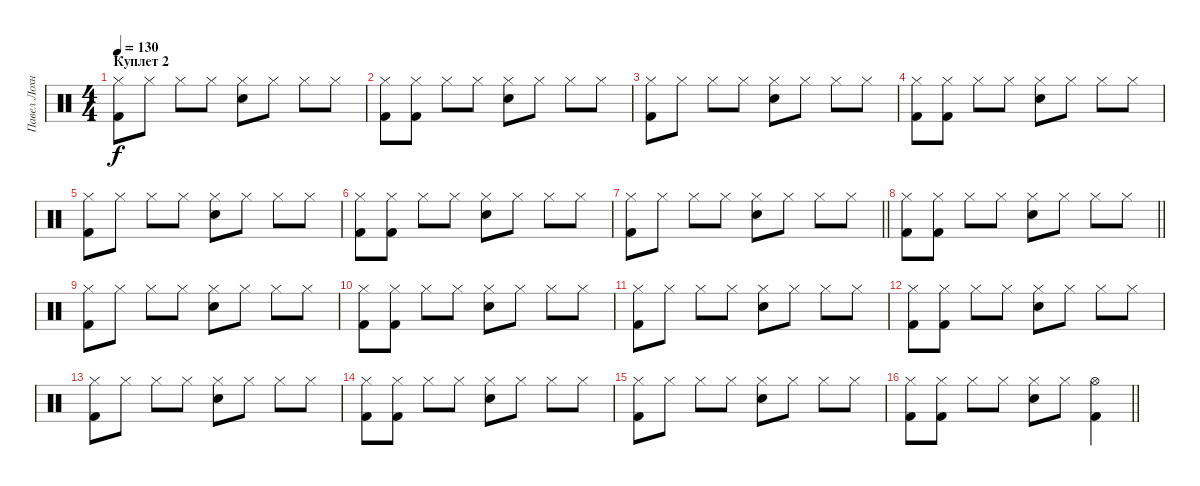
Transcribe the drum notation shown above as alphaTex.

\track ("Павел Лохнин" "Павел Лохн") {instrument percussion}
\staff {score}
\articulation defaults
\ts (4 4)
\section ("" "Куплет 2")
\tempo 130
\clef neutral
\ks c
("Hi-Hat (closed)" "Kick (hit) 2").8{dy f volume 13} "Hi-Hat (closed)".8 "Hi-Hat (closed)".8 "Hi-Hat (closed)".8 ("Hi-Hat (closed)" "Electric Snare (hit)").8 "Hi-Hat (closed)".8 "Hi-Hat (closed)".8 "Hi-Hat (closed)".8 |
("Hi-Hat (closed)" "Kick (hit) 2").8 ("Hi-Hat (closed)" "Kick (hit) 2").8 "Hi-Hat (closed)".8 "Hi-Hat (closed)".8 ("Hi-Hat (closed)" "Electric Snare (hit)").8 "Hi-Hat (closed)".8 "Hi-Hat (closed)".8 "Hi-Hat (closed)".8 |
("Hi-Hat (closed)" "Kick (hit) 2").8 "Hi-Hat (closed)".8 "Hi-Hat (closed)".8 "Hi-Hat (closed)".8 ("Hi-Hat (closed)" "Electric Snare (hit)").8 "Hi-Hat (closed)".8 "Hi-Hat (closed)".8 "Hi-Hat (closed)".8 |
("Hi-Hat (closed)" "Kick (hit) 2").8 ("Hi-Hat (closed)" "Kick (hit) 2").8 "Hi-Hat (closed)".8 "Hi-Hat (closed)".8 ("Hi-Hat (closed)" "Electric Snare (hit)").8 "Hi-Hat (closed)".8 "Hi-Hat (closed)".8 "Hi-Hat (closed)".8 |
("Hi-Hat (closed)" "Kick (hit) 2").8 "Hi-Hat (closed)".8 "Hi-Hat (closed)".8 "Hi-Hat (closed)".8 ("Hi-Hat (closed)" "Electric Snare (hit)").8 "Hi-Hat (closed)".8 "Hi-Hat (closed)".8 "Hi-Hat (closed)".8 |
("Hi-Hat (closed)" "Kick (hit) 2").8 ("Hi-Hat (closed)" "Kick (hit) 2").8 "Hi-Hat (closed)".8 "Hi-Hat (closed)".8 ("Hi-Hat (closed)" "Electric Snare (hit)").8 "Hi-Hat (closed)".8 "Hi-Hat (closed)".8 "Hi-Hat (closed)".8 |
\barLineRight lightlight
("Hi-Hat (closed)" "Kick (hit) 2").8 "Hi-Hat (closed)".8 "Hi-Hat (closed)".8 "Hi-Hat (closed)".8 ("Hi-Hat (closed)" "Electric Snare (hit)").8 "Hi-Hat (closed)".8 "Hi-Hat (closed)".8 "Hi-Hat (closed)".8 |
\barLineRight lightlight
("Hi-Hat (closed)" "Kick (hit) 2").8 ("Hi-Hat (closed)" "Kick (hit) 2").8 "Hi-Hat (closed)".8 "Hi-Hat (closed)".8 ("Hi-Hat (closed)" "Electric Snare (hit)").8 "Hi-Hat (closed)".8 "Hi-Hat (closed)".8 "Hi-Hat (closed)".8 |
("Hi-Hat (closed)" "Kick (hit) 2").8 "Hi-Hat (closed)".8 "Hi-Hat (closed)".8 "Hi-Hat (closed)".8 ("Hi-Hat (closed)" "Electric Snare (hit)").8 "Hi-Hat (closed)".8 "Hi-Hat (closed)".8 "Hi-Hat (closed)".8 |
("Hi-Hat (closed)" "Kick (hit) 2").8 ("Hi-Hat (closed)" "Kick (hit) 2").8 "Hi-Hat (closed)".8 "Hi-Hat (closed)".8 ("Hi-Hat (closed)" "Electric Snare (hit)").8 "Hi-Hat (closed)".8 "Hi-Hat (closed)".8 "Hi-Hat (closed)".8 |
("Hi-Hat (closed)" "Kick (hit) 2").8 "Hi-Hat (closed)".8 "Hi-Hat (closed)".8 "Hi-Hat (closed)".8 ("Hi-Hat (closed)" "Electric Snare (hit)").8 "Hi-Hat (closed)".8 "Hi-Hat (closed)".8 "Hi-Hat (closed)".8 |
("Hi-Hat (closed)" "Kick (hit) 2").8 ("Hi-Hat (closed)" "Kick (hit) 2").8 "Hi-Hat (closed)".8 "Hi-Hat (closed)".8 ("Hi-Hat (closed)" "Electric Snare (hit)").8 "Hi-Hat (closed)".8 "Hi-Hat (closed)".8 "Hi-Hat (closed)".8 |
("Hi-Hat (closed)" "Kick (hit) 2").8 "Hi-Hat (closed)".8 "Hi-Hat (closed)".8 "Hi-Hat (closed)".8 ("Hi-Hat (closed)" "Electric Snare (hit)").8 "Hi-Hat (closed)".8 "Hi-Hat (closed)".8 "Hi-Hat (closed)".8 |
("Hi-Hat (closed)" "Kick (hit) 2").8 ("Hi-Hat (closed)" "Kick (hit) 2").8 "Hi-Hat (closed)".8 "Hi-Hat (closed)".8 ("Hi-Hat (closed)" "Electric Snare (hit)").8 "Hi-Hat (closed)".8 "Hi-Hat (closed)".8 "Hi-Hat (closed)".8 |
("Hi-Hat (closed)" "Kick (hit) 2").8 "Hi-Hat (closed)".8 "Hi-Hat (closed)".8 "Hi-Hat (closed)".8 ("Hi-Hat (closed)" "Electric Snare (hit)").8 "Hi-Hat (closed)".8 "Hi-Hat (closed)".8 "Hi-Hat (closed)".8 |
\barLineRight lightlight
("Hi-Hat (closed)" "Kick (hit) 2").8 ("Hi-Hat (closed)" "Kick (hit) 2").8 "Hi-Hat (closed)".8 "Hi-Hat (closed)".8 ("Hi-Hat (closed)" "Electric Snare (hit)").8 "Hi-Hat (closed)".8 ("Hi-Hat (open)" "Kick (hit) 2").4
